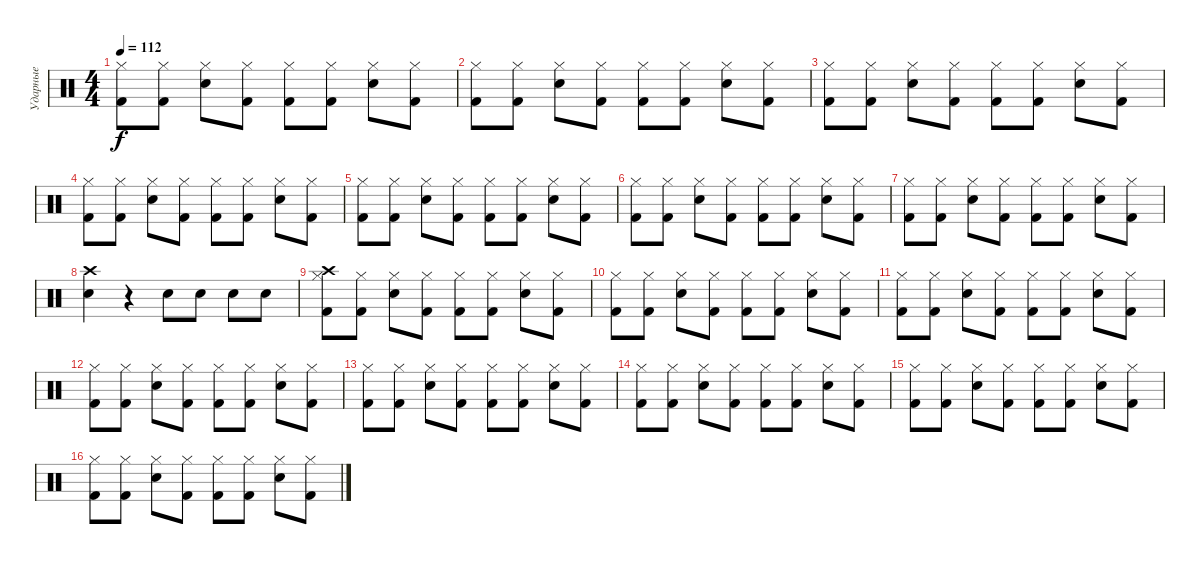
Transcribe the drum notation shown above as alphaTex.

\track ("Ударные" "Ударные") {instrument percussion}
\staff {score}
\articulation defaults
\ts (4 4)
\tempo 112
\clef neutral
\ks c
("Hi-Hat (closed)" "Kick (hit) 2").8{dy f} ("Hi-Hat (closed)" "Kick (hit) 2").8 ("Hi-Hat (closed)" "Snare (hit) 2").8 ("Hi-Hat (closed)" "Kick (hit) 2").8 ("Hi-Hat (closed)" "Kick (hit) 2").8 ("Hi-Hat (closed)" "Kick (hit) 2").8 ("Hi-Hat (closed)" "Snare (hit) 2").8 ("Hi-Hat (closed)" "Kick (hit) 2").8 |
("Hi-Hat (closed)" "Kick (hit) 2").8 ("Hi-Hat (closed)" "Kick (hit) 2").8 ("Hi-Hat (closed)" "Snare (hit) 2").8 ("Hi-Hat (closed)" "Kick (hit) 2").8 ("Hi-Hat (closed)" "Kick (hit) 2").8 ("Hi-Hat (closed)" "Kick (hit) 2").8 ("Hi-Hat (closed)" "Snare (hit) 2").8 ("Hi-Hat (closed)" "Kick (hit) 2").8 |
("Hi-Hat (closed)" "Kick (hit) 2").8 ("Hi-Hat (closed)" "Kick (hit) 2").8 ("Hi-Hat (closed)" "Snare (hit) 2").8 ("Hi-Hat (closed)" "Kick (hit) 2").8 ("Hi-Hat (closed)" "Kick (hit) 2").8 ("Hi-Hat (closed)" "Kick (hit) 2").8 ("Hi-Hat (closed)" "Snare (hit) 2").8 ("Hi-Hat (closed)" "Kick (hit) 2").8 |
("Hi-Hat (closed)" "Kick (hit) 2").8 ("Hi-Hat (closed)" "Kick (hit) 2").8 ("Hi-Hat (closed)" "Snare (hit) 2").8 ("Hi-Hat (closed)" "Kick (hit) 2").8 ("Hi-Hat (closed)" "Kick (hit) 2").8 ("Hi-Hat (closed)" "Kick (hit) 2").8 ("Hi-Hat (closed)" "Snare (hit) 2").8 ("Hi-Hat (closed)" "Kick (hit) 2").8 |
("Hi-Hat (closed)" "Kick (hit) 2").8 ("Hi-Hat (closed)" "Kick (hit) 2").8 ("Hi-Hat (closed)" "Snare (hit) 2").8 ("Hi-Hat (closed)" "Kick (hit) 2").8 ("Hi-Hat (closed)" "Kick (hit) 2").8 ("Hi-Hat (closed)" "Kick (hit) 2").8 ("Hi-Hat (closed)" "Snare (hit) 2").8 ("Hi-Hat (closed)" "Kick (hit) 2").8 |
("Hi-Hat (closed)" "Kick (hit) 2").8 ("Hi-Hat (closed)" "Kick (hit) 2").8 ("Hi-Hat (closed)" "Snare (hit) 2").8 ("Hi-Hat (closed)" "Kick (hit) 2").8 ("Hi-Hat (closed)" "Kick (hit) 2").8 ("Hi-Hat (closed)" "Kick (hit) 2").8 ("Hi-Hat (closed)" "Snare (hit) 2").8 ("Hi-Hat (closed)" "Kick (hit) 2").8 |
("Hi-Hat (closed)" "Kick (hit) 2").8 ("Hi-Hat (closed)" "Kick (hit) 2").8 ("Hi-Hat (closed)" "Snare (hit) 2").8 ("Hi-Hat (closed)" "Kick (hit) 2").8 ("Hi-Hat (closed)" "Kick (hit) 2").8 ("Hi-Hat (closed)" "Kick (hit) 2").8 ("Hi-Hat (closed)" "Snare (hit) 2").8 ("Hi-Hat (closed)" "Kick (hit) 2").8 |
("Crash high (hit)" "Snare (hit) 2").4 r.4 "Snare (hit) 2".8 "Snare (hit) 2".8 "Snare (hit) 2".8 "Snare (hit) 2".8 |
("Hi-Hat (closed)" "Kick (hit) 2" "Crash high (hit)").8 ("Hi-Hat (closed)" "Kick (hit) 2").8 ("Hi-Hat (closed)" "Snare (hit) 2").8 ("Hi-Hat (closed)" "Kick (hit) 2").8 ("Hi-Hat (closed)" "Kick (hit) 2").8 ("Hi-Hat (closed)" "Kick (hit) 2").8 ("Hi-Hat (closed)" "Snare (hit) 2").8 ("Hi-Hat (closed)" "Kick (hit) 2").8 |
("Hi-Hat (closed)" "Kick (hit) 2").8 ("Hi-Hat (closed)" "Kick (hit) 2").8 ("Hi-Hat (closed)" "Snare (hit) 2").8 ("Hi-Hat (closed)" "Kick (hit) 2").8 ("Hi-Hat (closed)" "Kick (hit) 2").8 ("Hi-Hat (closed)" "Kick (hit) 2").8 ("Hi-Hat (closed)" "Snare (hit) 2").8 ("Hi-Hat (closed)" "Kick (hit) 2").8 |
("Hi-Hat (closed)" "Kick (hit) 2").8 ("Hi-Hat (closed)" "Kick (hit) 2").8 ("Hi-Hat (closed)" "Snare (hit) 2").8 ("Hi-Hat (closed)" "Kick (hit) 2").8 ("Hi-Hat (closed)" "Kick (hit) 2").8 ("Hi-Hat (closed)" "Kick (hit) 2").8 ("Hi-Hat (closed)" "Snare (hit) 2").8 ("Hi-Hat (closed)" "Kick (hit) 2").8 |
("Hi-Hat (closed)" "Kick (hit) 2").8 ("Hi-Hat (closed)" "Kick (hit) 2").8 ("Hi-Hat (closed)" "Snare (hit) 2").8 ("Hi-Hat (closed)" "Kick (hit) 2").8 ("Hi-Hat (closed)" "Kick (hit) 2").8 ("Hi-Hat (closed)" "Kick (hit) 2").8 ("Hi-Hat (closed)" "Snare (hit) 2").8 ("Hi-Hat (closed)" "Kick (hit) 2").8 |
("Hi-Hat (closed)" "Kick (hit) 2").8 ("Hi-Hat (closed)" "Kick (hit) 2").8 ("Hi-Hat (closed)" "Snare (hit) 2").8 ("Hi-Hat (closed)" "Kick (hit) 2").8 ("Hi-Hat (closed)" "Kick (hit) 2").8 ("Hi-Hat (closed)" "Kick (hit) 2").8 ("Hi-Hat (closed)" "Snare (hit) 2").8 ("Hi-Hat (closed)" "Kick (hit) 2").8 |
("Hi-Hat (closed)" "Kick (hit) 2").8 ("Hi-Hat (closed)" "Kick (hit) 2").8 ("Hi-Hat (closed)" "Snare (hit) 2").8 ("Hi-Hat (closed)" "Kick (hit) 2").8 ("Hi-Hat (closed)" "Kick (hit) 2").8 ("Hi-Hat (closed)" "Kick (hit) 2").8 ("Hi-Hat (closed)" "Snare (hit) 2").8 ("Hi-Hat (closed)" "Kick (hit) 2").8 |
("Hi-Hat (closed)" "Kick (hit) 2").8 ("Hi-Hat (closed)" "Kick (hit) 2").8 ("Hi-Hat (closed)" "Snare (hit) 2").8 ("Hi-Hat (closed)" "Kick (hit) 2").8 ("Hi-Hat (closed)" "Kick (hit) 2").8 ("Hi-Hat (closed)" "Kick (hit) 2").8 ("Hi-Hat (closed)" "Snare (hit) 2").8 ("Hi-Hat (closed)" "Kick (hit) 2").8 |
("Hi-Hat (closed)" "Kick (hit) 2").8 ("Hi-Hat (closed)" "Kick (hit) 2").8 ("Hi-Hat (closed)" "Snare (hit) 2").8 ("Hi-Hat (closed)" "Kick (hit) 2").8 ("Hi-Hat (closed)" "Kick (hit) 2").8 ("Hi-Hat (closed)" "Kick (hit) 2").8 ("Hi-Hat (closed)" "Snare (hit) 2").8 ("Hi-Hat (closed)" "Kick (hit) 2").8
